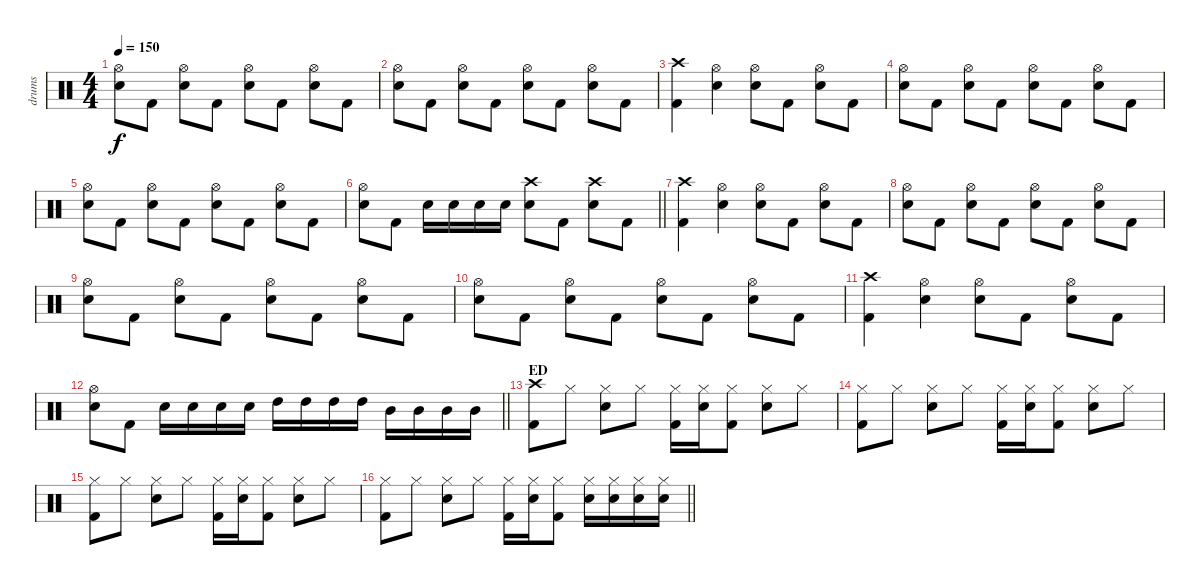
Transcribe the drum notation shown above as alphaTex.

\track ("drums" "drums") {instrument percussion}
\staff {score}
\articulation defaults
\ts (4 4)
\tempo 150
\clef neutral
\ks c
("Hi-Hat (open)" "Electric Snare (hit)").8{dy f} "Kick (hit) 2".8 ("Hi-Hat (open)" "Electric Snare (hit)").8 "Kick (hit) 2".8 ("Hi-Hat (open)" "Electric Snare (hit)").8 "Kick (hit) 2".8 ("Hi-Hat (open)" "Electric Snare (hit)").8 "Kick (hit) 2".8 |
("Hi-Hat (open)" "Electric Snare (hit)").8 "Kick (hit) 2".8 ("Hi-Hat (open)" "Electric Snare (hit)").8 "Kick (hit) 2".8 ("Hi-Hat (open)" "Electric Snare (hit)").8 "Kick (hit) 2".8 ("Hi-Hat (open)" "Electric Snare (hit)").8 "Kick (hit) 2".8 |
("Crash high (hit)" "Kick (hit) 2").4 ("Hi-Hat (open)" "Electric Snare (hit)").4 ("Hi-Hat (open)" "Electric Snare (hit)").8 "Kick (hit) 2".8 ("Hi-Hat (open)" "Electric Snare (hit)").8 "Kick (hit) 2".8 |
("Hi-Hat (open)" "Electric Snare (hit)").8 "Kick (hit) 2".8 ("Hi-Hat (open)" "Electric Snare (hit)").8 "Kick (hit) 2".8 ("Hi-Hat (open)" "Electric Snare (hit)").8 "Kick (hit) 2".8 ("Hi-Hat (open)" "Electric Snare (hit)").8 "Kick (hit) 2".8 |
("Hi-Hat (open)" "Electric Snare (hit)").8 "Kick (hit) 2".8 ("Hi-Hat (open)" "Electric Snare (hit)").8 "Kick (hit) 2".8 ("Hi-Hat (open)" "Electric Snare (hit)").8 "Kick (hit) 2".8 ("Hi-Hat (open)" "Electric Snare (hit)").8 "Kick (hit) 2".8 |
\barLineRight lightlight
("Hi-Hat (open)" "Electric Snare (hit)").8 "Kick (hit) 2".8 "Electric Snare (hit)".16 "Electric Snare (hit)".16 "Electric Snare (hit)".16 "Electric Snare (hit)".16 ("Crash high (hit)" "Electric Snare (hit)").8 "Kick (hit) 2".8 ("Crash high (hit)" "Electric Snare (hit)").8 "Kick (hit) 2".8 |
("Crash high (hit)" "Kick (hit) 2").4 ("Hi-Hat (open)" "Electric Snare (hit)").4 ("Hi-Hat (open)" "Electric Snare (hit)").8 "Kick (hit) 2".8 ("Hi-Hat (open)" "Electric Snare (hit)").8 "Kick (hit) 2".8 |
("Hi-Hat (open)" "Electric Snare (hit)").8 "Kick (hit) 2".8 ("Hi-Hat (open)" "Electric Snare (hit)").8 "Kick (hit) 2".8 ("Hi-Hat (open)" "Electric Snare (hit)").8 "Kick (hit) 2".8 ("Hi-Hat (open)" "Electric Snare (hit)").8 "Kick (hit) 2".8 |
("Hi-Hat (open)" "Electric Snare (hit)").8 "Kick (hit) 2".8 ("Hi-Hat (open)" "Electric Snare (hit)").8 "Kick (hit) 2".8 ("Hi-Hat (open)" "Electric Snare (hit)").8 "Kick (hit) 2".8 ("Hi-Hat (open)" "Electric Snare (hit)").8 "Kick (hit) 2".8 |
("Hi-Hat (open)" "Electric Snare (hit)").8 "Kick (hit) 2".8 ("Hi-Hat (open)" "Electric Snare (hit)").8 "Kick (hit) 2".8 ("Hi-Hat (open)" "Electric Snare (hit)").8 "Kick (hit) 2".8 ("Hi-Hat (open)" "Electric Snare (hit)").8 "Kick (hit) 2".8 |
("Crash high (hit)" "Kick (hit) 2").4 ("Hi-Hat (open)" "Electric Snare (hit)").4 ("Hi-Hat (open)" "Electric Snare (hit)").8 "Kick (hit) 2".8 ("Hi-Hat (open)" "Electric Snare (hit)").8 "Kick (hit) 2".8 |
\barLineRight lightlight
("Hi-Hat (open)" "Electric Snare (hit)").8 "Kick (hit) 2".8 "Electric Snare (hit)".16 "Electric Snare (hit)".16 "Electric Snare (hit)".16 "Electric Snare (hit)".16 "High Tom (hit)".16 "High Tom (hit)".16 "High Tom (hit)".16 "High Tom (hit)".16 "Mid Tom (hit)".16 "Mid Tom (hit)".16 "Mid Tom (hit)".16 "Mid Tom (hit)".16 |
\section ("" "ED")
("Crash high (hit)" "Kick (hit) 2").8 "Hi-Hat (closed)".8 ("Hi-Hat (closed)" "Electric Snare (hit)").8 "Hi-Hat (closed)".8 ("Hi-Hat (closed)" "Kick (hit) 2").16 ("Hi-Hat (closed)" "Electric Snare (hit)").16 ("Hi-Hat (closed)" "Kick (hit) 2").8 ("Hi-Hat (closed)" "Electric Snare (hit)").8 "Hi-Hat (closed)".8 |
("Hi-Hat (closed)" "Kick (hit) 2").8 "Hi-Hat (closed)".8 ("Hi-Hat (closed)" "Electric Snare (hit)").8 "Hi-Hat (closed)".8 ("Hi-Hat (closed)" "Kick (hit) 2").16 ("Hi-Hat (closed)" "Electric Snare (hit)").16 ("Hi-Hat (closed)" "Kick (hit) 2").8 ("Hi-Hat (closed)" "Electric Snare (hit)").8 "Hi-Hat (closed)".8 |
("Hi-Hat (closed)" "Kick (hit) 2").8 "Hi-Hat (closed)".8 ("Hi-Hat (closed)" "Electric Snare (hit)").8 "Hi-Hat (closed)".8 ("Hi-Hat (closed)" "Kick (hit) 2").16 ("Hi-Hat (closed)" "Electric Snare (hit)").16 ("Hi-Hat (closed)" "Kick (hit) 2").8 ("Hi-Hat (closed)" "Electric Snare (hit)").8 "Hi-Hat (closed)".8 |
\barLineRight lightlight
("Hi-Hat (closed)" "Kick (hit) 2").8 "Hi-Hat (closed)".8 ("Hi-Hat (closed)" "Electric Snare (hit)").8 "Hi-Hat (closed)".8 ("Hi-Hat (closed)" "Kick (hit) 2").16 ("Hi-Hat (closed)" "Electric Snare (hit)").16 ("Hi-Hat (closed)" "Kick (hit) 2").8 ("Hi-Hat (closed)" "Electric Snare (hit)").16 ("Hi-Hat (closed)" "Electric Snare (hit)").16 ("Hi-Hat (closed)" "Electric Snare (hit)").16 ("Hi-Hat (closed)" "Electric Snare (hit)").16
